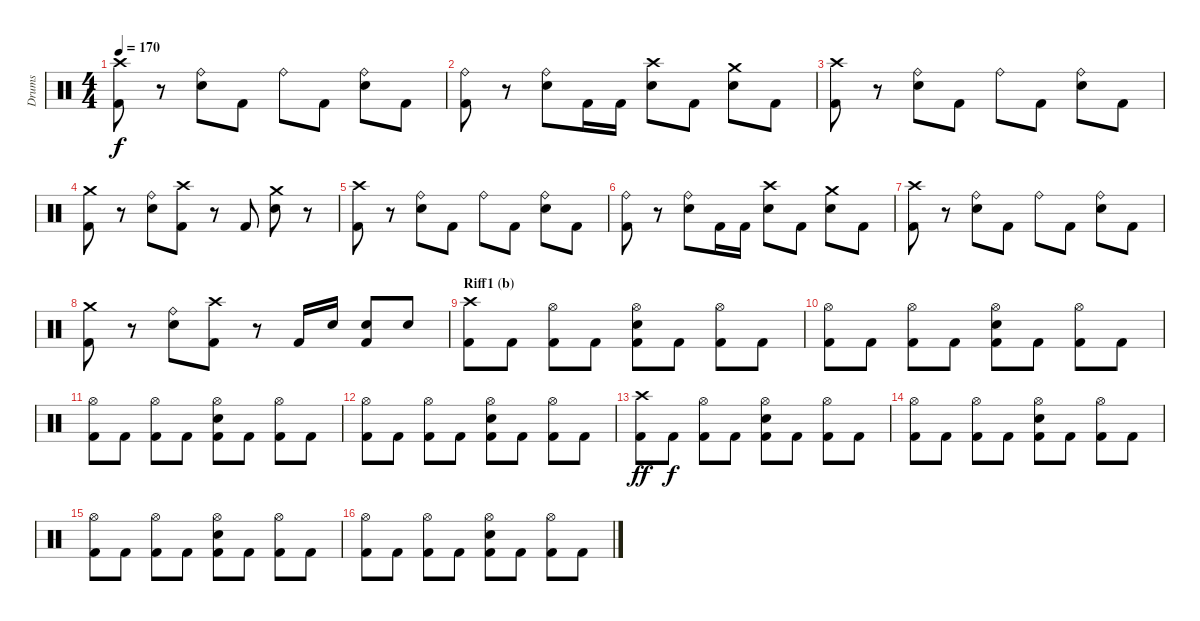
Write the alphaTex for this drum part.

\track ("Drums" "Drums") {instrument percussion}
\staff {score}
\articulation defaults
\ts (4 4)
\tempo 170
\clef neutral
\ks c
("Kick (hit) 2" "Crash high (hit)").8{dy f} r.8 ("Ride (bell)" "Electric Snare (hit)").8 "Kick (hit) 2".8 "Ride (bell)".8 "Kick (hit) 2".8 ("Ride (bell)" "Electric Snare (hit)").8 "Kick (hit) 2".8 |
("Kick (hit) 2" "Ride (bell)").8 r.8 ("Ride (bell)" "Electric Snare (hit)").8 "Kick (hit) 2".16 "Kick (hit) 2".16 ("Electric Snare (hit)" "Crash high (hit)").8 "Kick (hit) 2".8 ("Electric Snare (hit)" "Crash medium (hit)").8 "Kick (hit) 2".8 |
("Kick (hit) 2" "Crash high (hit)").8 r.8 ("Ride (bell)" "Electric Snare (hit)").8 "Kick (hit) 2".8 "Ride (bell)".8 "Kick (hit) 2".8 ("Ride (bell)" "Electric Snare (hit)").8 "Kick (hit) 2".8 |
("Kick (hit) 2" "Crash medium (hit)").8 r.8 ("Ride (bell)" "Electric Snare (hit)").8 ("Kick (hit) 2" "Crash high (hit)").8 r.8 "Kick (hit) 2".8 ("Electric Snare (hit)" "Crash medium (hit)").8 r.8 |
("Kick (hit) 2" "Crash high (hit)").8 r.8 ("Ride (bell)" "Electric Snare (hit)").8 "Kick (hit) 2".8 "Ride (bell)".8 "Kick (hit) 2".8 ("Ride (bell)" "Electric Snare (hit)").8 "Kick (hit) 2".8 |
("Kick (hit) 2" "Ride (bell)").8 r.8 ("Ride (bell)" "Electric Snare (hit)").8 "Kick (hit) 2".16 "Kick (hit) 2".16 ("Electric Snare (hit)" "Crash high (hit)").8 "Kick (hit) 2".8 ("Electric Snare (hit)" "Crash medium (hit)").8 "Kick (hit) 2".8 |
("Kick (hit) 2" "Crash high (hit)").8 r.8 ("Ride (bell)" "Electric Snare (hit)").8 "Kick (hit) 2".8 "Ride (bell)".8 "Kick (hit) 2".8 ("Ride (bell)" "Electric Snare (hit)").8 "Kick (hit) 2".8 |
("Kick (hit) 2" "Crash medium (hit)").8 r.8 ("Ride (bell)" "Electric Snare (hit)").8 ("Kick (hit) 2" "Crash high (hit)").8 r.8 "Kick (hit) 2".16 "Electric Snare (hit)".16 ("Kick (hit) 2" "Electric Snare (hit)").8 "Electric Snare (hit)".8 |
\section ("" "Riff1 (b)")
("Kick (hit) 2" "Crash high (hit)").8 "Kick (hit) 2".8 ("Kick (hit) 2" "Hi-Hat (open)").8 "Kick (hit) 2".8 ("Kick (hit) 2" "Hi-Hat (open)" "Electric Snare (hit)").8 "Kick (hit) 2".8 ("Kick (hit) 2" "Hi-Hat (open)").8 "Kick (hit) 2".8 |
("Kick (hit) 2" "Hi-Hat (open)").8 "Kick (hit) 2".8 ("Kick (hit) 2" "Hi-Hat (open)").8 "Kick (hit) 2".8 ("Kick (hit) 2" "Hi-Hat (open)" "Electric Snare (hit)").8 "Kick (hit) 2".8 ("Kick (hit) 2" "Hi-Hat (open)").8 "Kick (hit) 2".8 |
("Kick (hit) 2" "Hi-Hat (open)").8 "Kick (hit) 2".8 ("Kick (hit) 2" "Hi-Hat (open)").8 "Kick (hit) 2".8 ("Kick (hit) 2" "Hi-Hat (open)" "Electric Snare (hit)").8 "Kick (hit) 2".8 ("Kick (hit) 2" "Hi-Hat (open)").8 "Kick (hit) 2".8 |
("Kick (hit) 2" "Hi-Hat (open)").8 "Kick (hit) 2".8 ("Kick (hit) 2" "Hi-Hat (open)").8 "Kick (hit) 2".8 ("Kick (hit) 2" "Hi-Hat (open)" "Electric Snare (hit)").8 "Kick (hit) 2".8 ("Kick (hit) 2" "Hi-Hat (open)").8 "Kick (hit) 2".8 |
("Kick (hit) 2" "Crash high (hit)").8{dy ff} "Kick (hit) 2".8{dy f} ("Kick (hit) 2" "Hi-Hat (open)").8 "Kick (hit) 2".8 ("Kick (hit) 2" "Hi-Hat (open)" "Electric Snare (hit)").8 "Kick (hit) 2".8 ("Kick (hit) 2" "Hi-Hat (open)").8 "Kick (hit) 2".8 |
("Kick (hit) 2" "Hi-Hat (open)").8 "Kick (hit) 2".8 ("Kick (hit) 2" "Hi-Hat (open)").8 "Kick (hit) 2".8 ("Kick (hit) 2" "Hi-Hat (open)" "Electric Snare (hit)").8 "Kick (hit) 2".8 ("Kick (hit) 2" "Hi-Hat (open)").8 "Kick (hit) 2".8 |
("Kick (hit) 2" "Hi-Hat (open)").8 "Kick (hit) 2".8 ("Kick (hit) 2" "Hi-Hat (open)").8 "Kick (hit) 2".8 ("Kick (hit) 2" "Hi-Hat (open)" "Electric Snare (hit)").8 "Kick (hit) 2".8 ("Kick (hit) 2" "Hi-Hat (open)").8 "Kick (hit) 2".8 |
("Kick (hit) 2" "Hi-Hat (open)").8 "Kick (hit) 2".8 ("Kick (hit) 2" "Hi-Hat (open)").8 "Kick (hit) 2".8 ("Kick (hit) 2" "Hi-Hat (open)" "Electric Snare (hit)").8 "Kick (hit) 2".8 ("Kick (hit) 2" "Hi-Hat (open)").8 "Kick (hit) 2".8
